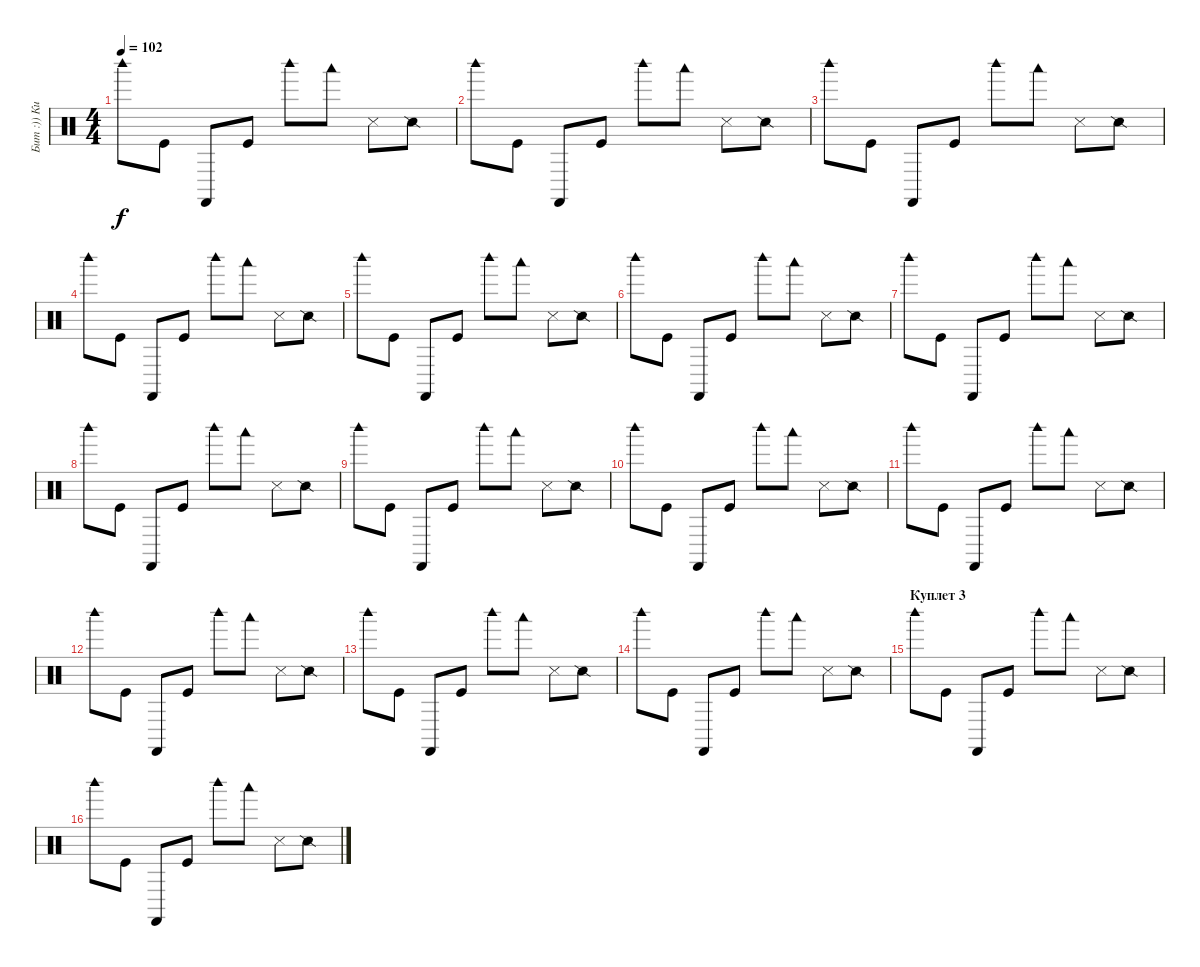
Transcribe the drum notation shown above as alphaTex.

\track ("Бит :)) Кита" "Бит :)) Ки") {instrument percussion}
\staff {score}
\articulation defaults
\ts (4 4)
\tempo 102
\clef neutral
\ks c "Woodblock high (hit)".8{dy f} "Kick (hit)".8 "Castanets (hit)".8 "Kick (hit)".8 "Woodblock high (hit)".8 "Woodblock low (hit)".8 "Snare (side stick) 3".8 "Snare (side stick) 2".8
|
"Woodblock high (hit)".8 "Kick (hit)".8 "Castanets (hit)".8 "Kick (hit)".8 "Woodblock high (hit)".8 "Woodblock low (hit)".8 "Snare (side stick) 3".8 "Snare (side stick) 2".8 |
"Woodblock high (hit)".8 "Kick (hit)".8 "Castanets (hit)".8 "Kick (hit)".8 "Woodblock high (hit)".8 "Woodblock low (hit)".8 "Snare (side stick) 3".8 "Snare (side stick) 2".8 |
"Woodblock high (hit)".8 "Kick (hit)".8 "Castanets (hit)".8 "Kick (hit)".8 "Woodblock high (hit)".8 "Woodblock low (hit)".8 "Snare (side stick) 3".8 "Snare (side stick) 2".8 |
"Woodblock high (hit)".8 "Kick (hit)".8 "Castanets (hit)".8 "Kick (hit)".8 "Woodblock high (hit)".8 "Woodblock low (hit)".8 "Snare (side stick) 3".8 "Snare (side stick) 2".8 |
"Woodblock high (hit)".8 "Kick (hit)".8 "Castanets (hit)".8 "Kick (hit)".8 "Woodblock high (hit)".8 "Woodblock low (hit)".8 "Snare (side stick) 3".8 "Snare (side stick) 2".8 |
"Woodblock high (hit)".8 "Kick (hit)".8 "Castanets (hit)".8 "Kick (hit)".8 "Woodblock high (hit)".8 "Woodblock low (hit)".8 "Snare (side stick) 3".8 "Snare (side stick) 2".8 |
"Woodblock high (hit)".8 "Kick (hit)".8 "Castanets (hit)".8 "Kick (hit)".8 "Woodblock high (hit)".8 "Woodblock low (hit)".8 "Snare (side stick) 3".8 "Snare (side stick) 2".8 |
"Woodblock high (hit)".8 "Kick (hit)".8 "Castanets (hit)".8 "Kick (hit)".8 "Woodblock high (hit)".8 "Woodblock low (hit)".8 "Snare (side stick) 3".8 "Snare (side stick) 2".8 |
"Woodblock high (hit)".8 "Kick (hit)".8 "Castanets (hit)".8 "Kick (hit)".8 "Woodblock high (hit)".8 "Woodblock low (hit)".8 "Snare (side stick) 3".8 "Snare (side stick) 2".8 |
"Woodblock high (hit)".8 "Kick (hit)".8 "Castanets (hit)".8 "Kick (hit)".8 "Woodblock high (hit)".8 "Woodblock low (hit)".8 "Snare (side stick) 3".8 "Snare (side stick) 2".8 |
"Woodblock high (hit)".8 "Kick (hit)".8 "Castanets (hit)".8 "Kick (hit)".8 "Woodblock high (hit)".8 "Woodblock low (hit)".8 "Snare (side stick) 3".8 "Snare (side stick) 2".8 |
"Woodblock high (hit)".8 "Kick (hit)".8 "Castanets (hit)".8 "Kick (hit)".8 "Woodblock high (hit)".8 "Woodblock low (hit)".8 "Snare (side stick) 3".8 "Snare (side stick) 2".8 |
"Woodblock high (hit)".8 "Kick (hit)".8 "Castanets (hit)".8 "Kick (hit)".8 "Woodblock high (hit)".8 "Woodblock low (hit)".8 "Snare (side stick) 3".8 "Snare (side stick) 2".8 |
\section ("" "Куплет 3")
"Woodblock high (hit)".8 "Kick (hit)".8 "Castanets (hit)".8 "Kick (hit)".8 "Woodblock high (hit)".8 "Woodblock low (hit)".8 "Snare (side stick) 3".8 "Snare (side stick) 2".8 |
"Woodblock high (hit)".8 "Kick (hit)".8 "Castanets (hit)".8 "Kick (hit)".8 "Woodblock high (hit)".8 "Woodblock low (hit)".8 "Snare (side stick) 3".8 "Snare (side stick) 2".8
